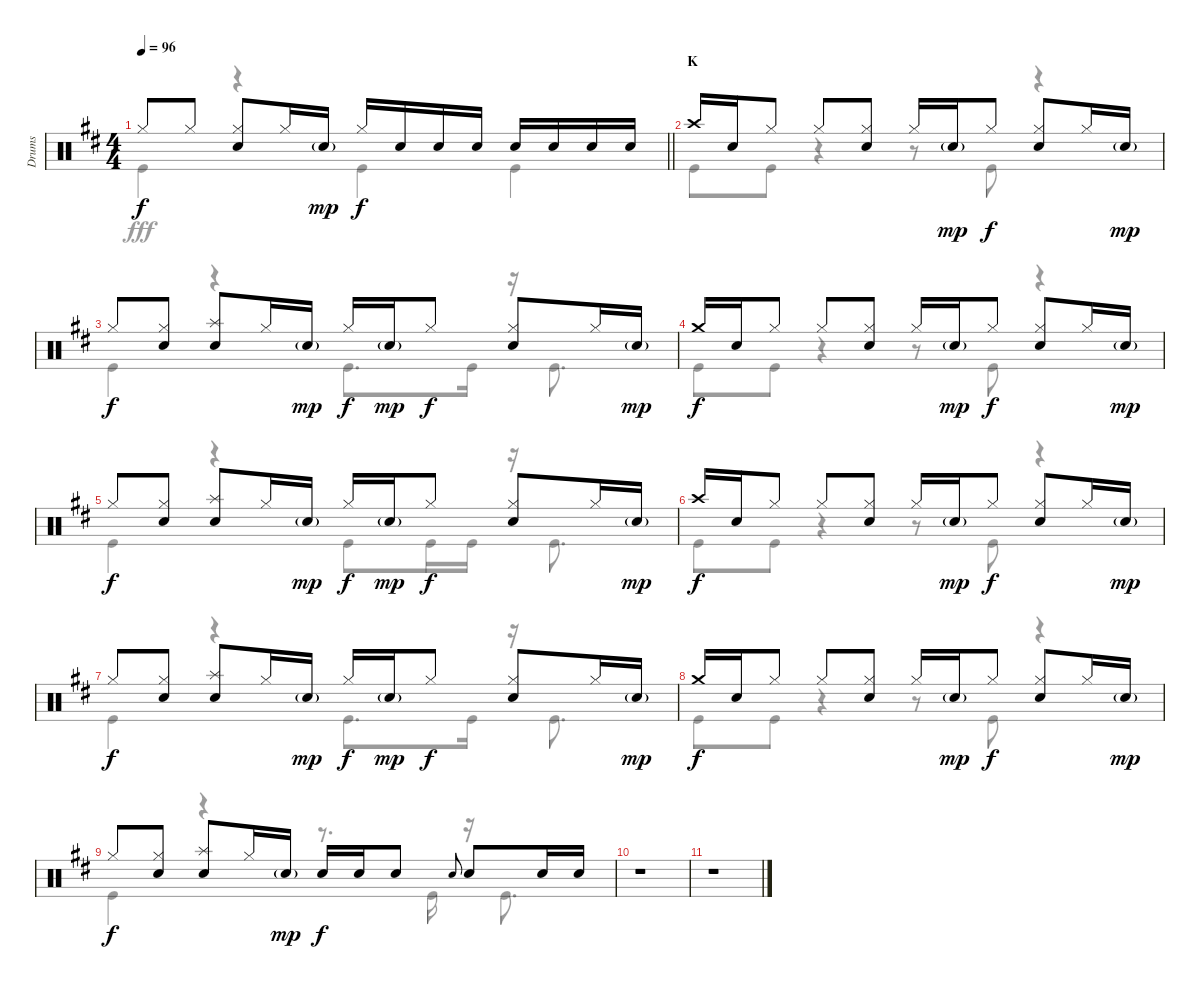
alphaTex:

\track ("Drums" "Drums") {instrument percussion}
\staff {score}
\articulation defaults
\voice
\ts (4 4)
\tempo 96
\clef neutral
\barLineRight lightlight
\ks d "Hi-Hat (closed)".8{dy f} "Hi-Hat (closed)".8
("Hi-Hat (closed)" "Snare (hit) 2").8 "Hi-Hat (closed)".16 "Snare (hit) 2"{g}.16{dy mp} "Hi-Hat (closed)".16{dy f} "Snare (hit) 2".16 "Snare (hit) 2".16 "Snare (hit) 2".16 "Snare (hit) 2".16 "Snare (hit) 2".16 "Snare (hit) 2".16 "Snare (hit) 2".16 |
\section ("" "K")
"Crash high (hit)".16 "Snare (hit) 2".16 "Hi-Hat (closed)".8 "Hi-Hat (closed)".8 ("Hi-Hat (closed)" "Snare (hit) 2").8 "Hi-Hat (closed)".16 "Snare (hit) 2"{g}.16{dy mp} "Hi-Hat (closed)".8{dy f} ("Hi-Hat (closed)" "Snare (hit) 2").8 "Hi-Hat (closed)".16 "Snare (hit) 2"{g}.16{dy mp} |
"Hi-Hat (closed)".8{dy f} ("Hi-Hat (closed)" "Snare (hit) 2").8 ("Splash (hit)" "Snare (hit) 2").8 "Hi-Hat (closed)".16 "Snare (hit) 2"{g}.16{dy mp} "Hi-Hat (closed)".16{dy f} "Snare (hit) 2"{g}.16{dy mp} "Hi-Hat (closed)".8{dy f} ("Hi-Hat (closed)" "Snare (hit) 2").8 "Hi-Hat (closed)".16 "Snare (hit) 2"{g}.16{dy mp} |
"Crash medium (hit)".16{dy f} "Snare (hit) 2".16 "Hi-Hat (closed)".8 "Hi-Hat (closed)".8 ("Hi-Hat (closed)" "Snare (hit) 2").8 "Hi-Hat (closed)".16 "Snare (hit) 2"{g}.16{dy mp} "Hi-Hat (closed)".8{dy f} ("Hi-Hat (closed)" "Snare (hit) 2").8 "Hi-Hat (closed)".16 "Snare (hit) 2"{g}.16{dy mp} |
"Hi-Hat (closed)".8{dy f} ("Hi-Hat (closed)" "Snare (hit) 2").8 ("Splash (hit)" "Snare (hit) 2").8 "Hi-Hat (closed)".16 "Snare (hit) 2"{g}.16{dy mp} "Hi-Hat (closed)".16{dy f} "Snare (hit) 2"{g}.16{dy mp} "Hi-Hat (closed)".8{dy f} ("Hi-Hat (closed)" "Snare (hit) 2").8 "Hi-Hat (closed)".16 "Snare (hit) 2"{g}.16{dy mp} |
"Crash high (hit)".16{dy f} "Snare (hit) 2".16 "Hi-Hat (closed)".8 "Hi-Hat (closed)".8 ("Hi-Hat (closed)" "Snare (hit) 2").8 "Hi-Hat (closed)".16 "Snare (hit) 2"{g}.16{dy mp} "Hi-Hat (closed)".8{dy f} ("Hi-Hat (closed)" "Snare (hit) 2").8 "Hi-Hat (closed)".16 "Snare (hit) 2"{g}.16{dy mp} |
"Hi-Hat (closed)".8{dy f} ("Hi-Hat (closed)" "Snare (hit) 2").8 ("Splash (hit)" "Snare (hit) 2").8 "Hi-Hat (closed)".16 "Snare (hit) 2"{g}.16{dy mp} "Hi-Hat (closed)".16{dy f} "Snare (hit) 2"{g}.16{dy mp} "Hi-Hat (closed)".8{dy f} ("Hi-Hat (closed)" "Snare (hit) 2").8 "Hi-Hat (closed)".16 "Snare (hit) 2"{g}.16{dy mp} |
"Crash medium (hit)".16{dy f} "Snare (hit) 2".16 "Hi-Hat (closed)".8 "Hi-Hat (closed)".8 ("Hi-Hat (closed)" "Snare (hit) 2").8 "Hi-Hat (closed)".16 "Snare (hit) 2"{g}.16{dy mp} "Hi-Hat (closed)".8{dy f} ("Hi-Hat (closed)" "Snare (hit) 2").8 "Hi-Hat (closed)".16 "Snare (hit) 2"{g}.16{dy mp} |
"Hi-Hat (closed)".8{dy f} ("Hi-Hat (closed)" "Snare (hit) 2").8 ("Splash (hit)" "Snare (hit) 2").8 "Hi-Hat (closed)".16 "Snare (hit) 2"{g}.16{dy mp} "Snare (hit) 2".16{dy f} "Snare (hit) 2".16 "Snare (hit) 2".8 "Snare (hit) 2".8{gr onbeat} "Snare (hit) 2".8 "Snare (hit) 2".16 "Snare (hit) 2".16 |
r.1 |
r.1
\voice
\clef neutral
\ottava regular
\simile none
\barLineRight lightlight
\ks d "Kick (hit)".4{dy fff}
r.4 "Kick (hit)".4 "Kick (hit)".4 |
"Kick (hit)".8 "Kick (hit)".8 r.4 r.8 "Kick (hit)".8 r.4 |
"Kick (hit)".4 r.4 "Kick (hit)".8{d} "Kick (hit)".16 r.16 "Kick (hit)".8{d} |
"Kick (hit)".8 "Kick (hit)".8 r.4 r.8 "Kick (hit)".8 r.4 |
"Kick (hit)".4 r.4 "Kick (hit)".8 "Kick (hit)".16 "Kick (hit)".16 r.16 "Kick (hit)".8{d} |
"Kick (hit)".8 "Kick (hit)".8 r.4 r.8 "Kick (hit)".8 r.4 |
"Kick (hit)".4 r.4 "Kick (hit)".8{d} "Kick (hit)".16 r.16 "Kick (hit)".8{d} |
"Kick (hit)".8 "Kick (hit)".8 r.4 r.8 "Kick (hit)".8 r.4 |
"Kick (hit)".4 r.4 r.8{d} "Kick (hit)".16 r.16 "Kick (hit)".8{d} |
r.1 |
r.1
